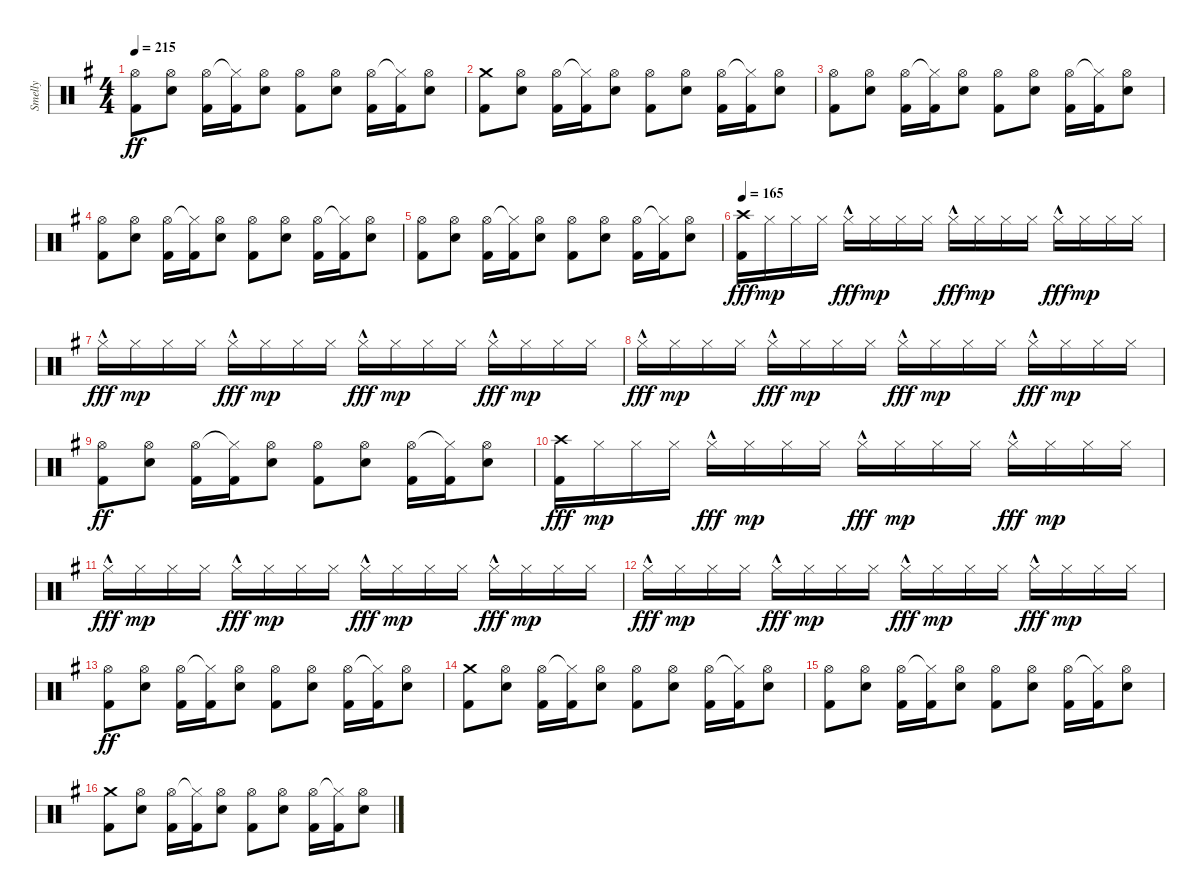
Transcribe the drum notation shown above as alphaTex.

\track ("Smelly" "Smelly") {instrument percussion}
\staff {score}
\articulation defaults
\ts (4 4)
\tempo 215
\clef neutral
\ks eminor
("Hi-Hat (open)" "Kick (hit) 2").8{dy ff} ("Hi-Hat (open)" "Electric Snare (hit)").8 ("Hi-Hat (open)" "Kick (hit) 2").16 ("Hi-Hat (closed)"{t} "Kick (hit) 2").16 ("Hi-Hat (open)" "Electric Snare (hit)").8 ("Hi-Hat (open)" "Kick (hit) 2").8 ("Hi-Hat (open)" "Electric Snare (hit)").8 ("Hi-Hat (open)" "Kick (hit) 2").16 ("Hi-Hat (closed)"{t} "Kick (hit) 2").16 ("Hi-Hat (open)" "Electric Snare (hit)").8 |
("Crash medium (hit)" "Kick (hit) 2").8 ("Hi-Hat (open)" "Electric Snare (hit)").8 ("Hi-Hat (open)" "Kick (hit) 2").16 ("Hi-Hat (closed)"{t} "Kick (hit) 2").16 ("Hi-Hat (open)" "Electric Snare (hit)").8 ("Hi-Hat (open)" "Kick (hit) 2").8 ("Hi-Hat (open)" "Electric Snare (hit)").8 ("Hi-Hat (open)" "Kick (hit) 2").16 ("Hi-Hat (closed)"{t} "Kick (hit) 2").16 ("Hi-Hat (open)" "Electric Snare (hit)").8 |
("Hi-Hat (open)" "Kick (hit) 2").8 ("Hi-Hat (open)" "Electric Snare (hit)").8 ("Hi-Hat (open)" "Kick (hit) 2").16 ("Hi-Hat (closed)"{t} "Kick (hit) 2").16 ("Hi-Hat (open)" "Electric Snare (hit)").8 ("Hi-Hat (open)" "Kick (hit) 2").8 ("Hi-Hat (open)" "Electric Snare (hit)").8 ("Hi-Hat (open)" "Kick (hit) 2").16 ("Hi-Hat (closed)"{t} "Kick (hit) 2").16 ("Hi-Hat (open)" "Electric Snare (hit)").8 |
("Hi-Hat (open)" "Kick (hit) 2").8 ("Hi-Hat (open)" "Electric Snare (hit)").8 ("Hi-Hat (open)" "Kick (hit) 2").16 ("Hi-Hat (closed)"{t} "Kick (hit) 2").16 ("Hi-Hat (open)" "Electric Snare (hit)").8 ("Hi-Hat (open)" "Kick (hit) 2").8 ("Hi-Hat (open)" "Electric Snare (hit)").8 ("Hi-Hat (open)" "Kick (hit) 2").16 ("Hi-Hat (closed)"{t} "Kick (hit) 2").16 ("Hi-Hat (open)" "Electric Snare (hit)").8 |
("Hi-Hat (open)" "Kick (hit) 2").8 ("Hi-Hat (open)" "Electric Snare (hit)").8 ("Hi-Hat (open)" "Kick (hit) 2").16 ("Hi-Hat (closed)"{t} "Kick (hit) 2").16 ("Hi-Hat (open)" "Electric Snare (hit)").8 ("Hi-Hat (open)" "Kick (hit) 2").8 ("Hi-Hat (open)" "Electric Snare (hit)").8 ("Hi-Hat (open)" "Kick (hit) 2").16 ("Hi-Hat (closed)"{t} "Kick (hit) 2").16 ("Hi-Hat (open)" "Electric Snare (hit)").8 |
\tempo 165
("Crash high (hit)" "Kick (hit) 2").16{dy fff} "Hi-Hat (closed)".16{dy mp} "Hi-Hat (closed)".16 "Hi-Hat (closed)".16 "Hi-Hat (closed)"{hac}.16{dy fff} "Hi-Hat (closed)".16{dy mp} "Hi-Hat (closed)".16 "Hi-Hat (closed)".16 "Hi-Hat (closed)"{hac}.16{dy fff} "Hi-Hat (closed)".16{dy mp} "Hi-Hat (closed)".16 "Hi-Hat (closed)".16 "Hi-Hat (closed)"{hac}.16{dy fff} "Hi-Hat (closed)".16{dy mp} "Hi-Hat (closed)".16 "Hi-Hat (closed)".16 |
"Hi-Hat (closed)"{hac}.16{dy fff} "Hi-Hat (closed)".16{dy mp} "Hi-Hat (closed)".16 "Hi-Hat (closed)".16 "Hi-Hat (closed)"{hac}.16{dy fff} "Hi-Hat (closed)".16{dy mp} "Hi-Hat (closed)".16 "Hi-Hat (closed)".16 "Hi-Hat (closed)"{hac}.16{dy fff} "Hi-Hat (closed)".16{dy mp} "Hi-Hat (closed)".16 "Hi-Hat (closed)".16 "Hi-Hat (closed)"{hac}.16{dy fff} "Hi-Hat (closed)".16{dy mp} "Hi-Hat (closed)".16 "Hi-Hat (closed)".16 |
"Hi-Hat (closed)"{hac}.16{dy fff} "Hi-Hat (closed)".16{dy mp} "Hi-Hat (closed)".16 "Hi-Hat (closed)".16 "Hi-Hat (closed)"{hac}.16{dy fff} "Hi-Hat (closed)".16{dy mp} "Hi-Hat (closed)".16 "Hi-Hat (closed)".16 "Hi-Hat (closed)"{hac}.16{dy fff} "Hi-Hat (closed)".16{dy mp} "Hi-Hat (closed)".16 "Hi-Hat (closed)".16 "Hi-Hat (closed)"{hac}.16{dy fff} "Hi-Hat (closed)".16{dy mp} "Hi-Hat (closed)".16 "Hi-Hat (closed)".16 |
("Hi-Hat (open)" "Kick (hit) 2").8{dy ff} ("Hi-Hat (open)" "Electric Snare (hit)").8 ("Hi-Hat (open)" "Kick (hit) 2").16 ("Hi-Hat (closed)"{t} "Kick (hit) 2").16 ("Hi-Hat (open)" "Electric Snare (hit)").8 ("Hi-Hat (open)" "Kick (hit) 2").8 ("Hi-Hat (open)" "Electric Snare (hit)").8 ("Hi-Hat (open)" "Kick (hit) 2").16 ("Hi-Hat (closed)"{t} "Kick (hit) 2").16 ("Hi-Hat (open)" "Electric Snare (hit)").8 |
("Crash high (hit)" "Kick (hit) 2").16{dy fff} "Hi-Hat (closed)".16{dy mp} "Hi-Hat (closed)".16 "Hi-Hat (closed)".16 "Hi-Hat (closed)"{hac}.16{dy fff} "Hi-Hat (closed)".16{dy mp} "Hi-Hat (closed)".16 "Hi-Hat (closed)".16 "Hi-Hat (closed)"{hac}.16{dy fff} "Hi-Hat (closed)".16{dy mp} "Hi-Hat (closed)".16 "Hi-Hat (closed)".16 "Hi-Hat (closed)"{hac}.16{dy fff} "Hi-Hat (closed)".16{dy mp} "Hi-Hat (closed)".16 "Hi-Hat (closed)".16 |
"Hi-Hat (closed)"{hac}.16{dy fff} "Hi-Hat (closed)".16{dy mp} "Hi-Hat (closed)".16 "Hi-Hat (closed)".16 "Hi-Hat (closed)"{hac}.16{dy fff} "Hi-Hat (closed)".16{dy mp} "Hi-Hat (closed)".16 "Hi-Hat (closed)".16 "Hi-Hat (closed)"{hac}.16{dy fff} "Hi-Hat (closed)".16{dy mp} "Hi-Hat (closed)".16 "Hi-Hat (closed)".16 "Hi-Hat (closed)"{hac}.16{dy fff} "Hi-Hat (closed)".16{dy mp} "Hi-Hat (closed)".16 "Hi-Hat (closed)".16 |
"Hi-Hat (closed)"{hac}.16{dy fff} "Hi-Hat (closed)".16{dy mp} "Hi-Hat (closed)".16 "Hi-Hat (closed)".16 "Hi-Hat (closed)"{hac}.16{dy fff} "Hi-Hat (closed)".16{dy mp} "Hi-Hat (closed)".16 "Hi-Hat (closed)".16 "Hi-Hat (closed)"{hac}.16{dy fff} "Hi-Hat (closed)".16{dy mp} "Hi-Hat (closed)".16 "Hi-Hat (closed)".16 "Hi-Hat (closed)"{hac}.16{dy fff} "Hi-Hat (closed)".16{dy mp} "Hi-Hat (closed)".16 "Hi-Hat (closed)".16 |
("Hi-Hat (open)" "Kick (hit) 2").8{dy ff} ("Hi-Hat (open)" "Electric Snare (hit)").8 ("Hi-Hat (open)" "Kick (hit) 2").16 ("Hi-Hat (closed)"{t} "Kick (hit) 2").16 ("Hi-Hat (open)" "Electric Snare (hit)").8 ("Hi-Hat (open)" "Kick (hit) 2").8 ("Hi-Hat (open)" "Electric Snare (hit)").8 ("Hi-Hat (open)" "Kick (hit) 2").16 ("Hi-Hat (closed)"{t} "Kick (hit) 2").16 ("Hi-Hat (open)" "Electric Snare (hit)").8 |
("Crash medium (hit)" "Kick (hit) 2").8 ("Hi-Hat (open)" "Electric Snare (hit)").8 ("Hi-Hat (open)" "Kick (hit) 2").16 ("Hi-Hat (closed)"{t} "Kick (hit) 2").16 ("Hi-Hat (open)" "Electric Snare (hit)").8 ("Hi-Hat (open)" "Kick (hit) 2").8 ("Hi-Hat (open)" "Electric Snare (hit)").8 ("Hi-Hat (open)" "Kick (hit) 2").16 ("Hi-Hat (closed)"{t} "Kick (hit) 2").16 ("Hi-Hat (open)" "Electric Snare (hit)").8 |
("Hi-Hat (open)" "Kick (hit) 2").8 ("Hi-Hat (open)" "Electric Snare (hit)").8 ("Hi-Hat (open)" "Kick (hit) 2").16 ("Hi-Hat (closed)"{t} "Kick (hit) 2").16 ("Hi-Hat (open)" "Electric Snare (hit)").8 ("Hi-Hat (open)" "Kick (hit) 2").8 ("Hi-Hat (open)" "Electric Snare (hit)").8 ("Hi-Hat (open)" "Kick (hit) 2").16 ("Hi-Hat (closed)"{t} "Kick (hit) 2").16 ("Hi-Hat (open)" "Electric Snare (hit)").8 |
("Crash medium (hit)" "Kick (hit) 2").8 ("Hi-Hat (open)" "Electric Snare (hit)").8 ("Hi-Hat (open)" "Kick (hit) 2").16 ("Hi-Hat (closed)"{t} "Kick (hit) 2").16 ("Hi-Hat (open)" "Electric Snare (hit)").8 ("Hi-Hat (open)" "Kick (hit) 2").8 ("Hi-Hat (open)" "Electric Snare (hit)").8 ("Hi-Hat (open)" "Kick (hit) 2").16 ("Hi-Hat (closed)"{t} "Kick (hit) 2").16 ("Hi-Hat (open)" "Electric Snare (hit)").8
